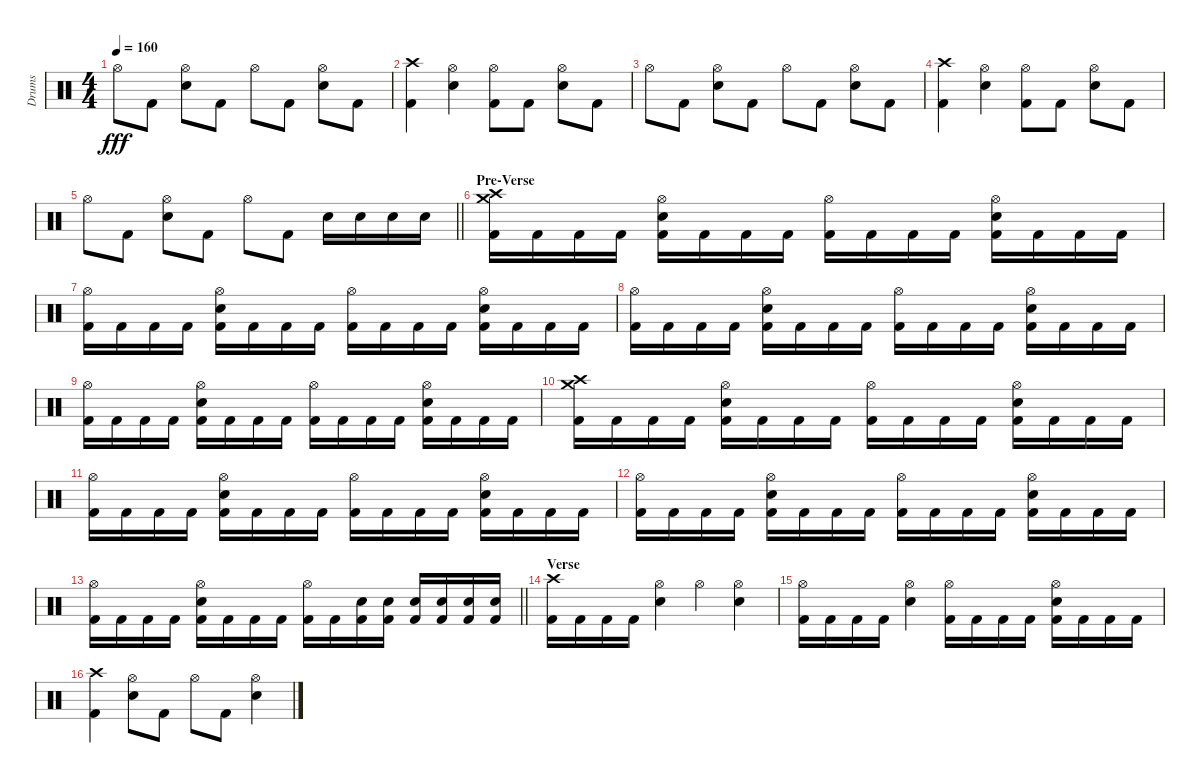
\track ("Drums" "Drums") {instrument percussion}
\staff {score}
\articulation defaults
\ts (4 4)
\tempo 160
\clef neutral
\ks c "Hi-Hat (open)".8{dy fff} "Kick (hit) 2".8
("Snare (hit) 2" "Hi-Hat (open)").8 "Kick (hit) 2".8 "Hi-Hat (open)".8 "Kick (hit) 2".8 ("Snare (hit) 2" "Hi-Hat (open)").8 "Kick (hit) 2".8 |
("Crash high (hit)" "Kick (hit) 2").4 ("Snare (hit) 2" "Hi-Hat (open)").4 ("Hi-Hat (open)" "Kick (hit) 2").8 "Kick (hit) 2".8 ("Snare (hit) 2" "Hi-Hat (open)").8 "Kick (hit) 2".8 |
"Hi-Hat (open)".8 "Kick (hit) 2".8 ("Snare (hit) 2" "Hi-Hat (open)").8 "Kick (hit) 2".8 "Hi-Hat (open)".8 "Kick (hit) 2".8 ("Snare (hit) 2" "Hi-Hat (open)").8 "Kick (hit) 2".8 |
("Crash high (hit)" "Kick (hit) 2").4 ("Snare (hit) 2" "Hi-Hat (open)").4 ("Hi-Hat (open)" "Kick (hit) 2").8 "Kick (hit) 2".8 ("Snare (hit) 2" "Hi-Hat (open)").8 "Kick (hit) 2".8 |
\barLineRight lightlight "Hi-Hat (open)".8 "Kick (hit) 2".8
("Snare (hit) 2" "Hi-Hat (open)").8 "Kick (hit) 2".8 "Hi-Hat (open)".8 "Kick (hit) 2".8 "Snare (hit) 2".16 "Snare (hit) 2".16 "Snare (hit) 2".16 "Snare (hit) 2".16 |
\section ("" "Pre-Verse")
("Crash high (hit)" "Crash medium (hit)" "Kick (hit) 2").16 "Kick (hit) 2".16 "Kick (hit) 2".16 "Kick (hit) 2".16 ("Snare (hit) 2" "Hi-Hat (open)" "Kick (hit) 2").16 "Kick (hit) 2".16 "Kick (hit) 2".16 "Kick (hit) 2".16 ("Hi-Hat (open)" "Kick (hit) 2").16 "Kick (hit) 2".16 "Kick (hit) 2".16 "Kick (hit) 2".16 ("Snare (hit) 2" "Hi-Hat (open)" "Kick (hit) 2").16 "Kick (hit) 2".16 "Kick (hit) 2".16 "Kick (hit) 2".16 |
("Hi-Hat (open)" "Kick (hit) 2").16 "Kick (hit) 2".16 "Kick (hit) 2".16 "Kick (hit) 2".16 ("Snare (hit) 2" "Hi-Hat (open)" "Kick (hit) 2").16 "Kick (hit) 2".16 "Kick (hit) 2".16 "Kick (hit) 2".16 ("Hi-Hat (open)" "Kick (hit) 2").16 "Kick (hit) 2".16 "Kick (hit) 2".16 "Kick (hit) 2".16 ("Snare (hit) 2" "Hi-Hat (open)" "Kick (hit) 2").16 "Kick (hit) 2".16 "Kick (hit) 2".16 "Kick (hit) 2".16 |
("Hi-Hat (open)" "Kick (hit) 2").16 "Kick (hit) 2".16 "Kick (hit) 2".16 "Kick (hit) 2".16 ("Snare (hit) 2" "Hi-Hat (open)" "Kick (hit) 2").16 "Kick (hit) 2".16 "Kick (hit) 2".16 "Kick (hit) 2".16 ("Hi-Hat (open)" "Kick (hit) 2").16 "Kick (hit) 2".16 "Kick (hit) 2".16 "Kick (hit) 2".16 ("Snare (hit) 2" "Hi-Hat (open)" "Kick (hit) 2").16 "Kick (hit) 2".16 "Kick (hit) 2".16 "Kick (hit) 2".16 |
("Hi-Hat (open)" "Kick (hit) 2").16 "Kick (hit) 2".16 "Kick (hit) 2".16 "Kick (hit) 2".16 ("Snare (hit) 2" "Hi-Hat (open)" "Kick (hit) 2").16 "Kick (hit) 2".16 "Kick (hit) 2".16 "Kick (hit) 2".16 ("Hi-Hat (open)" "Kick (hit) 2").16 "Kick (hit) 2".16 "Kick (hit) 2".16 "Kick (hit) 2".16 ("Snare (hit) 2" "Hi-Hat (open)" "Kick (hit) 2").16 "Kick (hit) 2".16 "Kick (hit) 2".16 "Kick (hit) 2".16 |
("Crash high (hit)" "Crash medium (hit)" "Kick (hit) 2").16 "Kick (hit) 2".16 "Kick (hit) 2".16 "Kick (hit) 2".16 ("Snare (hit) 2" "Hi-Hat (open)" "Kick (hit) 2").16 "Kick (hit) 2".16 "Kick (hit) 2".16 "Kick (hit) 2".16 ("Hi-Hat (open)" "Kick (hit) 2").16 "Kick (hit) 2".16 "Kick (hit) 2".16 "Kick (hit) 2".16 ("Snare (hit) 2" "Hi-Hat (open)" "Kick (hit) 2").16 "Kick (hit) 2".16 "Kick (hit) 2".16 "Kick (hit) 2".16 |
("Hi-Hat (open)" "Kick (hit) 2").16 "Kick (hit) 2".16 "Kick (hit) 2".16 "Kick (hit) 2".16 ("Snare (hit) 2" "Hi-Hat (open)" "Kick (hit) 2").16 "Kick (hit) 2".16 "Kick (hit) 2".16 "Kick (hit) 2".16 ("Hi-Hat (open)" "Kick (hit) 2").16 "Kick (hit) 2".16 "Kick (hit) 2".16 "Kick (hit) 2".16 ("Snare (hit) 2" "Hi-Hat (open)" "Kick (hit) 2").16 "Kick (hit) 2".16 "Kick (hit) 2".16 "Kick (hit) 2".16 |
("Hi-Hat (open)" "Kick (hit) 2").16 "Kick (hit) 2".16 "Kick (hit) 2".16 "Kick (hit) 2".16 ("Snare (hit) 2" "Hi-Hat (open)" "Kick (hit) 2").16 "Kick (hit) 2".16 "Kick (hit) 2".16 "Kick (hit) 2".16 ("Hi-Hat (open)" "Kick (hit) 2").16 "Kick (hit) 2".16 "Kick (hit) 2".16 "Kick (hit) 2".16 ("Snare (hit) 2" "Hi-Hat (open)" "Kick (hit) 2").16 "Kick (hit) 2".16 "Kick (hit) 2".16 "Kick (hit) 2".16 |
\barLineRight lightlight
("Hi-Hat (open)" "Kick (hit) 2").16 "Kick (hit) 2".16 "Kick (hit) 2".16 "Kick (hit) 2".16 ("Snare (hit) 2" "Hi-Hat (open)" "Kick (hit) 2").16 "Kick (hit) 2".16 "Kick (hit) 2".16 "Kick (hit) 2".16 ("Hi-Hat (open)" "Kick (hit) 2").16 "Kick (hit) 2".16 ("Snare (hit) 2" "Kick (hit) 2").16 ("Snare (hit) 2" "Kick (hit) 2").16 ("Snare (hit) 2" "Kick (hit) 2").16 ("Snare (hit) 2" "Kick (hit) 2").16 ("Snare (hit) 2" "Kick (hit) 2").16 ("Snare (hit) 2" "Kick (hit) 2").16 |
\section ("" "Verse")
("Crash high (hit)" "Kick (hit) 2").16 "Kick (hit) 2".16 "Kick (hit) 2".16 "Kick (hit) 2".16 ("Snare (hit) 2" "Hi-Hat (open)").4 "Hi-Hat (open)".4 ("Snare (hit) 2" "Hi-Hat (open)").4 |
("Hi-Hat (open)" "Kick (hit) 2").16 "Kick (hit) 2".16 "Kick (hit) 2".16 "Kick (hit) 2".16 ("Snare (hit) 2" "Hi-Hat (open)").4 ("Hi-Hat (open)" "Kick (hit) 2").16 "Kick (hit) 2".16 "Kick (hit) 2".16 "Kick (hit) 2".16 ("Snare (hit) 2" "Hi-Hat (open)" "Kick (hit) 2").16 "Kick (hit) 2".16 "Kick (hit) 2".16 "Kick (hit) 2".16 |
("Crash high (hit)" "Kick (hit) 2").4 ("Snare (hit) 2" "Hi-Hat (open)").8 "Kick (hit) 2".8 "Hi-Hat (open)".8 "Kick (hit) 2".8 ("Snare (hit) 2" "Hi-Hat (open)").4
